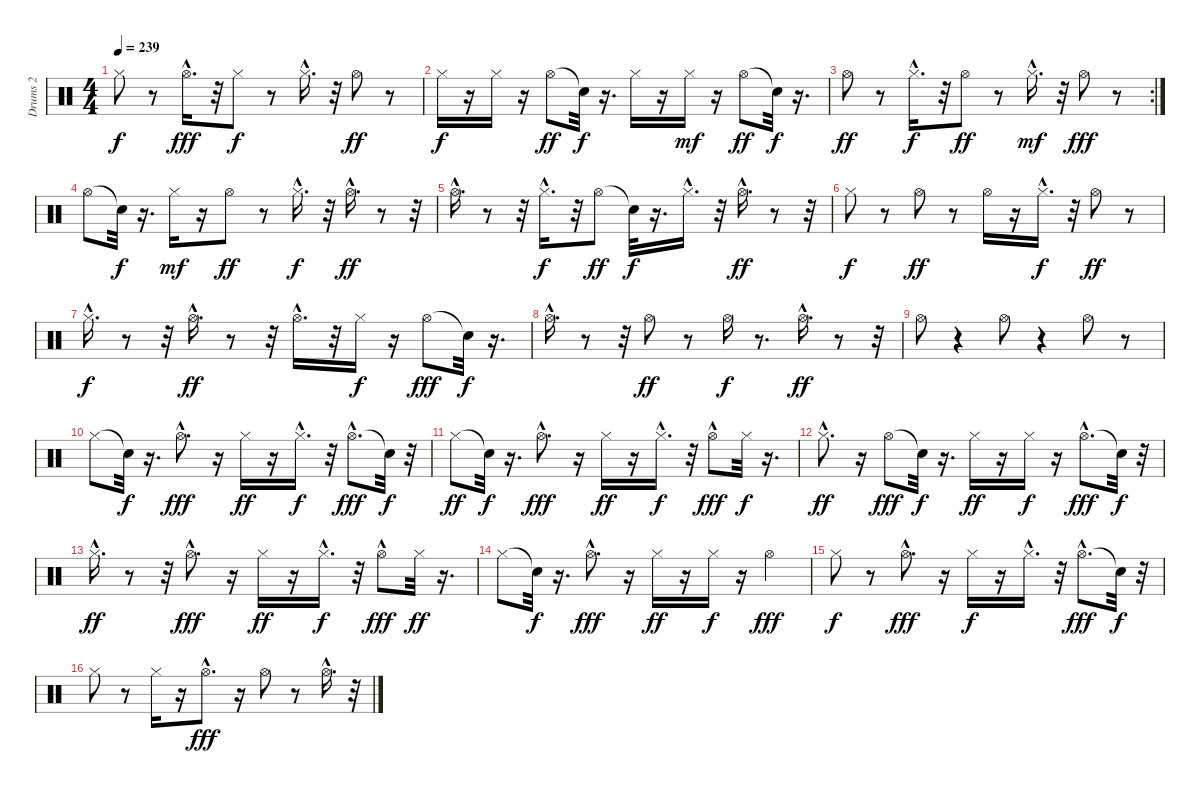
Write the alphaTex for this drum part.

\track ("Drums 2" "Drums 2") {instrument percussion}
\staff {score}
\articulation defaults
\ts (4 4)
\tempo 239
\clef neutral
\ks c "Hi-Hat (closed)".8{dy f}
r.8 "Hi-Hat (open)"{hac}.16{d dy fff} r.32 "Hi-Hat (closed)".8{dy f} r.8 "Hi-Hat (closed)"{hac}.16{d} r.32 "Hi-Hat (open)".8{dy ff} r.8 |
"Hi-Hat (closed)".16{dy f} r.16 "Hi-Hat (closed)".16 r.16 "Hi-Hat (open)".8{dy ff} "Snare (hit)"{t}.32{dy f} r.16{d} "Hi-Hat (closed)".16 r.16 "Hi-Hat (closed)".16{dy mf} r.16 "Hi-Hat (open)".8{dy ff} "Snare (hit)"{t}.32{dy f} r.16{d} |
\rc 2 "Hi-Hat (open)".8{dy ff}
r.8 "Hi-Hat (closed)"{hac}.16{d dy f} r.32 "Hi-Hat (open)".8{dy ff} r.8 "Hi-Hat (closed)"{hac}.16{d dy mf} r.32 "Hi-Hat (open)".8{dy fff} r.8 |
"Hi-Hat (open)".8 "Snare (hit)"{t}.32{dy f} r.16{d} "Hi-Hat (closed)".16{dy mf} r.16 "Hi-Hat (open)".8{dy ff} r.8 "Hi-Hat (closed)"{hac}.16{d dy f} r.32 "Hi-Hat (open)"{hac}.16{d dy ff} r.8 r.32 |
"Hi-Hat (open)"{hac}.16{d} r.8 r.32 "Hi-Hat (closed)"{hac}.16{d dy f} r.32 "Hi-Hat (open)".8{dy ff} "Snare (hit)"{t}.32{dy f} r.16{d} "Hi-Hat (closed)"{hac}.16{d} r.32 "Hi-Hat (open)"{hac}.16{d dy ff} r.8 r.32 |
"Hi-Hat (closed)".8{dy f} r.8 "Hi-Hat (open)".8{dy ff} r.8 "Hi-Hat (open)".16 r.16 "Hi-Hat (closed)"{hac}.16{d dy f} r.32 "Hi-Hat (open)".8{dy ff} r.8 |
"Hi-Hat (closed)"{hac}.16{d dy f} r.8 r.32 "Hi-Hat (open)"{hac}.16{d dy ff} r.8 r.32 "Hi-Hat (open)"{hac}.16{d} r.32 "Hi-Hat (closed)".16{dy f} r.16 "Hi-Hat (open)".8{dy fff} "Snare (hit)"{t}.32{dy f} r.16{d} |
"Hi-Hat (open)"{hac}.16{d} r.8 r.32 "Hi-Hat (open)".8{dy ff} r.8 "Hi-Hat (open)".16{dy f} r.8{d} "Hi-Hat (open)"{hac}.16{d dy ff} r.8 r.32 |
"Hi-Hat (open)".8 r.4 "Hi-Hat (open)".8 r.4 "Hi-Hat (open)".8 r.8 |
"Hi-Hat (closed)".8 "Snare (hit)"{t}.32{dy f} r.16{d} "Hi-Hat (open)"{hac}.8{d dy fff} r.16 "Hi-Hat (closed)".16{dy ff} r.16 "Hi-Hat (closed)"{hac}.16{d dy f} r.32 "Hi-Hat (open)"{hac}.8{d dy fff} "Snare (hit)"{t}.32{dy f} r.32 |
"Hi-Hat (closed)".8{dy ff} "Snare (hit)"{t}.32{dy f} r.16{d} "Hi-Hat (open)"{hac}.8{d dy fff} r.16 "Hi-Hat (closed)".16{dy ff} r.16 "Hi-Hat (closed)"{hac}.16{d dy f} r.32 "Hi-Hat (open)"{hac}.8{dy fff} "Hi-Hat (closed)".32{dy f} r.16{d} |
"Hi-Hat (closed)"{hac}.8{d dy ff} r.16 "Hi-Hat (open)".8{dy fff} "Snare (hit)"{t}.32{dy f} r.16{d} "Hi-Hat (closed)".16{dy ff} r.16 "Hi-Hat (closed)".16{dy f} r.16 "Hi-Hat (open)"{hac}.8{d dy fff} "Snare (hit)"{t}.32{dy f} r.32 |
"Hi-Hat (closed)"{hac}.16{d dy ff} r.8 r.32 "Hi-Hat (open)"{hac}.8{d dy fff} r.16 "Hi-Hat (closed)".16{dy ff} r.16 "Hi-Hat (closed)"{hac}.16{d dy f} r.32 "Hi-Hat (open)"{hac}.8{dy fff} "Hi-Hat (closed)".32{dy ff} r.16{d} |
"Hi-Hat (closed)".8 "Snare (hit)"{t}.32{dy f} r.16{d} "Hi-Hat (open)"{hac}.8{d dy fff} r.16 "Hi-Hat (closed)".16{dy ff} r.16 "Hi-Hat (closed)".16{dy f} r.16 "Hi-Hat (open)".4{dy fff} |
"Hi-Hat (closed)".8{dy f} r.8 "Hi-Hat (open)"{hac}.8{d dy fff} r.16 "Hi-Hat (closed)".16{dy f} r.16 "Hi-Hat (closed)"{hac}.16{d} r.32 "Hi-Hat (open)"{hac}.8{d dy fff} "Snare (hit)"{t}.32{dy f} r.32 |
"Hi-Hat (closed)".8 r.8 "Hi-Hat (closed)".16 r.16 "Hi-Hat (open)"{hac}.8{d dy fff} r.16 "Hi-Hat (open)".8 r.8 "Hi-Hat (open)"{hac}.16{d} r.32
